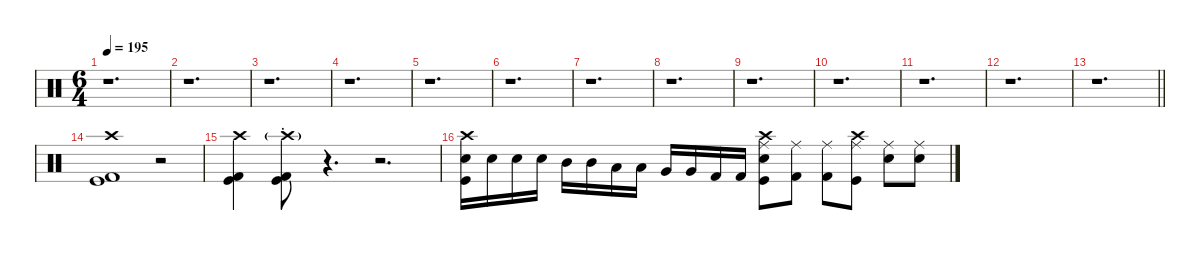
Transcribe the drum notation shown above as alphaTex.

\defaultSystemsLayout 4
\hideDynamics
\bracketExtendMode nobrackets
\singleTrackTrackNamePolicy hidden
\multiTrackTrackNamePolicy hidden
\firstSystemTrackNameMode fullname
\firstSystemTrackNameOrientation horizontal
\otherSystemsTrackNameOrientation horizontal
\track ("Percussion" "drm.") {defaultSystemsLayout 4 instrument percussion}
\staff {score}
\articulation defaults
\ts (6 4)
\tempo 195
\clef neutral
\ks c
r.1{d dy f beam Down} |
r.1{d beam Down} |
r.1{d beam Down} |
r.1{d beam Down} |
r.1{d beam Down} |
r.1{d beam Down} |
r.1{d beam Down} |
r.1{d beam Down} |
r.1{d beam Down} |
r.1{d beam Down} |
r.1{d beam Down} |
r.1{d beam Down} |
\barLineRight lightlight
r.1{d beam Down} |
("Crash high (hit)" "Kick (hit) 2" "Kick (hit)").1{beam Down} r.2{beam Down} |
("Crash high (hit)" "Kick (hit) 2" "Kick (hit)").4{beam Down} ("Crash high (choke)"{g} "Kick (hit) 2" "Kick (hit)").8{beam Down} r.4{d beam Down} r.2{d beam Down} |
("Crash high (hit)" "Snare (hit) 2" "Kick (hit)").16{beam Down} "Snare (hit) 2".16{beam Down} "Snare (hit) 2".16{beam Down} "Snare (hit) 2".16{beam Down} "Mid Tom (hit)".16{beam Down} "Mid Tom (hit)".16{beam Down} "Low Tom (hit)".16{beam Up} "Low Tom (hit)".16{beam Up} "Very Low Tom (hit)".16{beam Up} "Very Low Tom (hit)".16{beam Up} "Kick (hit) 2".16{beam Up} "Kick (hit) 2".16{beam Up} ("Crash high (hit)" "Snare (hit) 2" "Ride (middle)" "Kick (hit)").8{beam Down} ("Kick (hit) 2" "Ride (middle)").8{beam Down} ("Kick (hit) 2" "Ride (middle)").8{beam Down} ("Crash high (hit)" "Ride (middle)" "Kick (hit)").8{beam Down} ("Snare (hit) 2" "Ride (middle)").8{beam Down} ("Snare (hit) 2" "Ride (middle)").8{beam Down}
